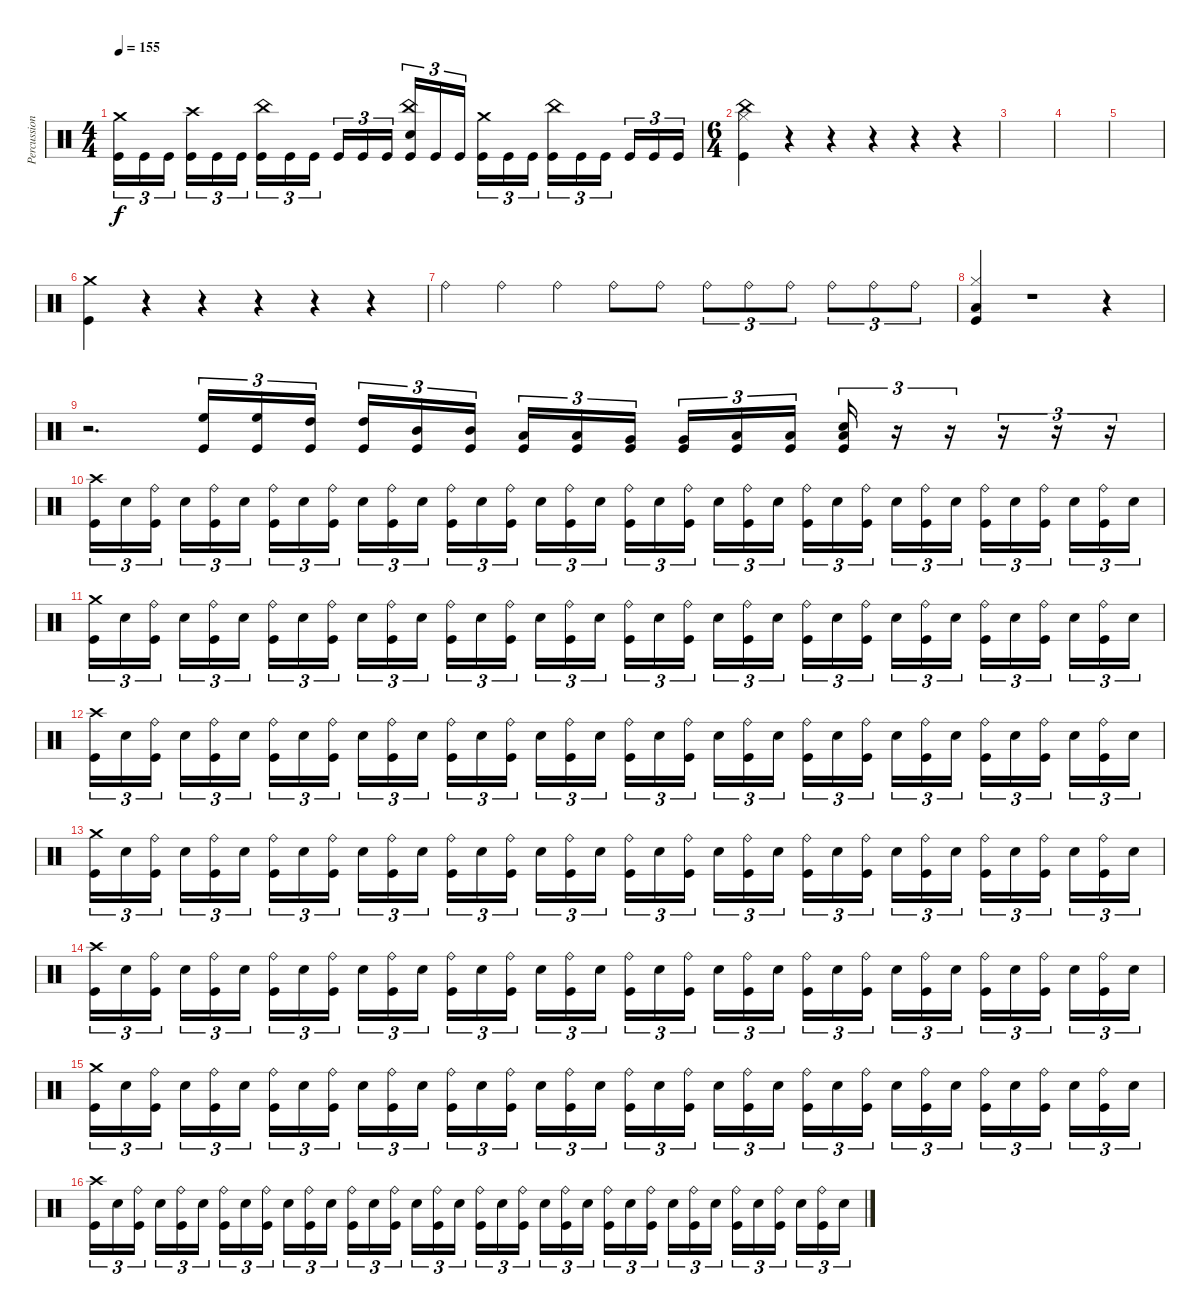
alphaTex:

\track ("Percussion" "Percussion") {instrument percussion}
\staff {score}
\articulation defaults
\ts (4 4)
\tempo 155
\clef neutral
\ks c
("Crash medium (hit)" "Kick (hit)").16{tu (3 2) dy f} "Kick (hit)".16{tu (3 2)} "Kick (hit)".16{tu (3 2) beam splitsecondary} ("Crash high (hit)" "Kick (hit)").16{tu (3 2)} "Kick (hit)".16{tu (3 2)} "Kick (hit)".16{tu (3 2)} ("China (hit)" "Kick (hit)").16{tu (3 2)} "Kick (hit)".16{tu (3 2)} "Kick (hit)".16{tu (3 2) beam splitsecondary} "Kick (hit)".16{tu (3 2)} "Kick (hit)".16{tu (3 2)} "Kick (hit)".16{tu (3 2)} ("China (hit)" "Snare (hit) 2" "Kick (hit)").16{tu (3 2)} "Kick (hit)".16{tu (3 2)} "Kick (hit)".16{tu (3 2) beam splitsecondary} ("Crash medium (hit)" "Kick (hit)").16{tu (3 2)} "Kick (hit)".16{tu (3 2)} "Kick (hit)".16{tu (3 2)} ("China (hit)" "Kick (hit)").16{tu (3 2)} "Kick (hit)".16{tu (3 2)} "Kick (hit)".16{tu (3 2) beam splitsecondary} "Kick (hit)".16{tu (3 2)} "Kick (hit)".16{tu (3 2)} "Kick (hit)".16{tu (3 2)} |
\ts (6 4)
("Hi-Hat (closed)" "China (hit)" "Kick (hit)").4 r.4 r.4 r.4 r.4 r.4 |
|
|
|
("Crash medium (hit)" "Kick (hit)").4 r.4 r.4 r.4 r.4 r.4 |
"Ride (bell)".4 "Ride (bell)".4 "Ride (bell)".4 "Ride (bell)".8 "Ride (bell)".8 "Ride (bell)".8{tu (3 2)} "Ride (bell)".8{tu (3 2)} "Ride (bell)".8{tu (3 2)} "Ride (bell)".8{tu (3 2)} "Ride (bell)".8{tu (3 2)} "Ride (bell)".8{tu (3 2)} |
("Hi-Hat (closed)" "Low Floor Tom (hit)" "Kick (hit)").4 r.1 r.4 |
r.2{d} ("High Floor Tom (hit)" "Kick (hit)").16{tu (3 2)} ("High Floor Tom (hit)" "Kick (hit)").16{tu (3 2)} ("High Tom (hit)" "Kick (hit)").16{tu (3 2) beam splitsecondary} ("High Tom (hit)" "Kick (hit)").16{tu (3 2)} ("Mid Tom (hit)" "Kick (hit)").16{tu (3 2)} ("Mid Tom (hit)" "Kick (hit)").16{tu (3 2) beam splitsecondary} ("Low Tom (hit)" "Kick (hit)").16{tu (3 2)} ("Low Tom (hit)" "Kick (hit)").16{tu (3 2)} ("Very Low Tom (hit)" "Kick (hit)").16{tu (3 2) beam splitsecondary} ("Very Low Tom (hit)" "Kick (hit)").16{tu (3 2)} ("Low Floor Tom (hit)" "Kick (hit)").16{tu (3 2)} ("Low Floor Tom (hit)" "Kick (hit)").16{tu (3 2) beam splitsecondary} ("Low Floor Tom (hit)" "Snare (hit) 2" "Kick (hit)").16{tu (3 2)} r.16{tu (3 2)} r.16{tu (3 2)} r.16{tu (3 2)} r.16{tu (3 2)} r.16{tu (3 2)} |
("Crash high (hit)" "Kick (hit)").16{tu (3 2)} "Snare (hit) 2".16{tu (3 2)} ("Ride (bell)" "Kick (hit)").16{tu (3 2) beam splitsecondary} "Snare (hit) 2".16{tu (3 2)} ("Ride (bell)" "Kick (hit)").16{tu (3 2)} "Snare (hit) 2".16{tu (3 2) beam splitsecondary} ("Ride (bell)" "Kick (hit)").16{tu (3 2)} "Snare (hit) 2".16{tu (3 2)} ("Ride (bell)" "Kick (hit)").16{tu (3 2) beam splitsecondary} "Snare (hit) 2".16{tu (3 2)} ("Ride (bell)" "Kick (hit)").16{tu (3 2)} "Snare (hit) 2".16{tu (3 2) beam splitsecondary} ("Ride (bell)" "Kick (hit)").16{tu (3 2)} "Snare (hit) 2".16{tu (3 2)} ("Ride (bell)" "Kick (hit)").16{tu (3 2) beam splitsecondary} "Snare (hit) 2".16{tu (3 2)} ("Ride (bell)" "Kick (hit)").16{tu (3 2)} "Snare (hit) 2".16{tu (3 2)} ("Ride (bell)" "Kick (hit)").16{tu (3 2)} "Snare (hit) 2".16{tu (3 2)} ("Ride (bell)" "Kick (hit)").16{tu (3 2) beam splitsecondary} "Snare (hit) 2".16{tu (3 2)} ("Ride (bell)" "Kick (hit)").16{tu (3 2)} "Snare (hit) 2".16{tu (3 2) beam splitsecondary} ("Ride (bell)" "Kick (hit)").16{tu (3 2)} "Snare (hit) 2".16{tu (3 2)} ("Ride (bell)" "Kick (hit)").16{tu (3 2) beam splitsecondary} "Snare (hit) 2".16{tu (3 2)} ("Ride (bell)" "Kick (hit)").16{tu (3 2)} "Snare (hit) 2".16{tu (3 2) beam splitsecondary} ("Ride (bell)" "Kick (hit)").16{tu (3 2)} "Snare (hit) 2".16{tu (3 2)} ("Ride (bell)" "Kick (hit)").16{tu (3 2) beam splitsecondary} "Snare (hit) 2".16{tu (3 2)} ("Ride (bell)" "Kick (hit)").16{tu (3 2)} "Snare (hit) 2".16{tu (3 2)} |
("Crash medium (hit)" "Kick (hit)").16{tu (3 2)} "Snare (hit) 2".16{tu (3 2)} ("Ride (bell)" "Kick (hit)").16{tu (3 2) beam splitsecondary} "Snare (hit) 2".16{tu (3 2)} ("Ride (bell)" "Kick (hit)").16{tu (3 2)} "Snare (hit) 2".16{tu (3 2) beam splitsecondary} ("Ride (bell)" "Kick (hit)").16{tu (3 2)} "Snare (hit) 2".16{tu (3 2)} ("Ride (bell)" "Kick (hit)").16{tu (3 2) beam splitsecondary} "Snare (hit) 2".16{tu (3 2)} ("Ride (bell)" "Kick (hit)").16{tu (3 2)} "Snare (hit) 2".16{tu (3 2) beam splitsecondary} ("Ride (bell)" "Kick (hit)").16{tu (3 2)} "Snare (hit) 2".16{tu (3 2)} ("Ride (bell)" "Kick (hit)").16{tu (3 2) beam splitsecondary} "Snare (hit) 2".16{tu (3 2)} ("Ride (bell)" "Kick (hit)").16{tu (3 2)} "Snare (hit) 2".16{tu (3 2)} ("Ride (bell)" "Kick (hit)").16{tu (3 2)} "Snare (hit) 2".16{tu (3 2)} ("Ride (bell)" "Kick (hit)").16{tu (3 2) beam splitsecondary} "Snare (hit) 2".16{tu (3 2)} ("Ride (bell)" "Kick (hit)").16{tu (3 2)} "Snare (hit) 2".16{tu (3 2) beam splitsecondary} ("Ride (bell)" "Kick (hit)").16{tu (3 2)} "Snare (hit) 2".16{tu (3 2)} ("Ride (bell)" "Kick (hit)").16{tu (3 2) beam splitsecondary} "Snare (hit) 2".16{tu (3 2)} ("Ride (bell)" "Kick (hit)").16{tu (3 2)} "Snare (hit) 2".16{tu (3 2) beam splitsecondary} ("Ride (bell)" "Kick (hit)").16{tu (3 2)} "Snare (hit) 2".16{tu (3 2)} ("Ride (bell)" "Kick (hit)").16{tu (3 2) beam splitsecondary} "Snare (hit) 2".16{tu (3 2)} ("Ride (bell)" "Kick (hit)").16{tu (3 2)} "Snare (hit) 2".16{tu (3 2)} |
("Crash high (hit)" "Kick (hit)").16{tu (3 2)} "Snare (hit) 2".16{tu (3 2)} ("Ride (bell)" "Kick (hit)").16{tu (3 2) beam splitsecondary} "Snare (hit) 2".16{tu (3 2)} ("Ride (bell)" "Kick (hit)").16{tu (3 2)} "Snare (hit) 2".16{tu (3 2) beam splitsecondary} ("Ride (bell)" "Kick (hit)").16{tu (3 2)} "Snare (hit) 2".16{tu (3 2)} ("Ride (bell)" "Kick (hit)").16{tu (3 2) beam splitsecondary} "Snare (hit) 2".16{tu (3 2)} ("Ride (bell)" "Kick (hit)").16{tu (3 2)} "Snare (hit) 2".16{tu (3 2) beam splitsecondary} ("Ride (bell)" "Kick (hit)").16{tu (3 2)} "Snare (hit) 2".16{tu (3 2)} ("Ride (bell)" "Kick (hit)").16{tu (3 2) beam splitsecondary} "Snare (hit) 2".16{tu (3 2)} ("Ride (bell)" "Kick (hit)").16{tu (3 2)} "Snare (hit) 2".16{tu (3 2)} ("Ride (bell)" "Kick (hit)").16{tu (3 2)} "Snare (hit) 2".16{tu (3 2)} ("Ride (bell)" "Kick (hit)").16{tu (3 2) beam splitsecondary} "Snare (hit) 2".16{tu (3 2)} ("Ride (bell)" "Kick (hit)").16{tu (3 2)} "Snare (hit) 2".16{tu (3 2) beam splitsecondary} ("Ride (bell)" "Kick (hit)").16{tu (3 2)} "Snare (hit) 2".16{tu (3 2)} ("Ride (bell)" "Kick (hit)").16{tu (3 2) beam splitsecondary} "Snare (hit) 2".16{tu (3 2)} ("Ride (bell)" "Kick (hit)").16{tu (3 2)} "Snare (hit) 2".16{tu (3 2) beam splitsecondary} ("Ride (bell)" "Kick (hit)").16{tu (3 2)} "Snare (hit) 2".16{tu (3 2)} ("Ride (bell)" "Kick (hit)").16{tu (3 2) beam splitsecondary} "Snare (hit) 2".16{tu (3 2)} ("Ride (bell)" "Kick (hit)").16{tu (3 2)} "Snare (hit) 2".16{tu (3 2)} |
("Crash medium (hit)" "Kick (hit)").16{tu (3 2)} "Snare (hit) 2".16{tu (3 2)} ("Ride (bell)" "Kick (hit)").16{tu (3 2) beam splitsecondary} "Snare (hit) 2".16{tu (3 2)} ("Ride (bell)" "Kick (hit)").16{tu (3 2)} "Snare (hit) 2".16{tu (3 2) beam splitsecondary} ("Ride (bell)" "Kick (hit)").16{tu (3 2)} "Snare (hit) 2".16{tu (3 2)} ("Ride (bell)" "Kick (hit)").16{tu (3 2) beam splitsecondary} "Snare (hit) 2".16{tu (3 2)} ("Ride (bell)" "Kick (hit)").16{tu (3 2)} "Snare (hit) 2".16{tu (3 2) beam splitsecondary} ("Ride (bell)" "Kick (hit)").16{tu (3 2)} "Snare (hit) 2".16{tu (3 2)} ("Ride (bell)" "Kick (hit)").16{tu (3 2) beam splitsecondary} "Snare (hit) 2".16{tu (3 2)} ("Ride (bell)" "Kick (hit)").16{tu (3 2)} "Snare (hit) 2".16{tu (3 2)} ("Ride (bell)" "Kick (hit)").16{tu (3 2)} "Snare (hit) 2".16{tu (3 2)} ("Ride (bell)" "Kick (hit)").16{tu (3 2) beam splitsecondary} "Snare (hit) 2".16{tu (3 2)} ("Ride (bell)" "Kick (hit)").16{tu (3 2)} "Snare (hit) 2".16{tu (3 2) beam splitsecondary} ("Ride (bell)" "Kick (hit)").16{tu (3 2)} "Snare (hit) 2".16{tu (3 2)} ("Ride (bell)" "Kick (hit)").16{tu (3 2) beam splitsecondary} "Snare (hit) 2".16{tu (3 2)} ("Ride (bell)" "Kick (hit)").16{tu (3 2)} "Snare (hit) 2".16{tu (3 2) beam splitsecondary} ("Ride (bell)" "Kick (hit)").16{tu (3 2)} "Snare (hit) 2".16{tu (3 2)} ("Ride (bell)" "Kick (hit)").16{tu (3 2) beam splitsecondary} "Snare (hit) 2".16{tu (3 2)} ("Ride (bell)" "Kick (hit)").16{tu (3 2)} "Snare (hit) 2".16{tu (3 2)} |
("Crash high (hit)" "Kick (hit)").16{tu (3 2)} "Snare (hit) 2".16{tu (3 2)} ("Ride (bell)" "Kick (hit)").16{tu (3 2) beam splitsecondary} "Snare (hit) 2".16{tu (3 2)} ("Ride (bell)" "Kick (hit)").16{tu (3 2)} "Snare (hit) 2".16{tu (3 2) beam splitsecondary} ("Ride (bell)" "Kick (hit)").16{tu (3 2)} "Snare (hit) 2".16{tu (3 2)} ("Ride (bell)" "Kick (hit)").16{tu (3 2) beam splitsecondary} "Snare (hit) 2".16{tu (3 2)} ("Ride (bell)" "Kick (hit)").16{tu (3 2)} "Snare (hit) 2".16{tu (3 2) beam splitsecondary} ("Ride (bell)" "Kick (hit)").16{tu (3 2)} "Snare (hit) 2".16{tu (3 2)} ("Ride (bell)" "Kick (hit)").16{tu (3 2) beam splitsecondary} "Snare (hit) 2".16{tu (3 2)} ("Ride (bell)" "Kick (hit)").16{tu (3 2)} "Snare (hit) 2".16{tu (3 2)} ("Ride (bell)" "Kick (hit)").16{tu (3 2)} "Snare (hit) 2".16{tu (3 2)} ("Ride (bell)" "Kick (hit)").16{tu (3 2) beam splitsecondary} "Snare (hit) 2".16{tu (3 2)} ("Ride (bell)" "Kick (hit)").16{tu (3 2)} "Snare (hit) 2".16{tu (3 2) beam splitsecondary} ("Ride (bell)" "Kick (hit)").16{tu (3 2)} "Snare (hit) 2".16{tu (3 2)} ("Ride (bell)" "Kick (hit)").16{tu (3 2) beam splitsecondary} "Snare (hit) 2".16{tu (3 2)} ("Ride (bell)" "Kick (hit)").16{tu (3 2)} "Snare (hit) 2".16{tu (3 2) beam splitsecondary} ("Ride (bell)" "Kick (hit)").16{tu (3 2)} "Snare (hit) 2".16{tu (3 2)} ("Ride (bell)" "Kick (hit)").16{tu (3 2) beam splitsecondary} "Snare (hit) 2".16{tu (3 2)} ("Ride (bell)" "Kick (hit)").16{tu (3 2)} "Snare (hit) 2".16{tu (3 2)} |
("Crash medium (hit)" "Kick (hit)").16{tu (3 2)} "Snare (hit) 2".16{tu (3 2)} ("Ride (bell)" "Kick (hit)").16{tu (3 2) beam splitsecondary} "Snare (hit) 2".16{tu (3 2)} ("Ride (bell)" "Kick (hit)").16{tu (3 2)} "Snare (hit) 2".16{tu (3 2) beam splitsecondary} ("Ride (bell)" "Kick (hit)").16{tu (3 2)} "Snare (hit) 2".16{tu (3 2)} ("Ride (bell)" "Kick (hit)").16{tu (3 2) beam splitsecondary} "Snare (hit) 2".16{tu (3 2)} ("Ride (bell)" "Kick (hit)").16{tu (3 2)} "Snare (hit) 2".16{tu (3 2) beam splitsecondary} ("Ride (bell)" "Kick (hit)").16{tu (3 2)} "Snare (hit) 2".16{tu (3 2)} ("Ride (bell)" "Kick (hit)").16{tu (3 2) beam splitsecondary} "Snare (hit) 2".16{tu (3 2)} ("Ride (bell)" "Kick (hit)").16{tu (3 2)} "Snare (hit) 2".16{tu (3 2)} ("Ride (bell)" "Kick (hit)").16{tu (3 2)} "Snare (hit) 2".16{tu (3 2)} ("Ride (bell)" "Kick (hit)").16{tu (3 2) beam splitsecondary} "Snare (hit) 2".16{tu (3 2)} ("Ride (bell)" "Kick (hit)").16{tu (3 2)} "Snare (hit) 2".16{tu (3 2) beam splitsecondary} ("Ride (bell)" "Kick (hit)").16{tu (3 2)} "Snare (hit) 2".16{tu (3 2)} ("Ride (bell)" "Kick (hit)").16{tu (3 2) beam splitsecondary} "Snare (hit) 2".16{tu (3 2)} ("Ride (bell)" "Kick (hit)").16{tu (3 2)} "Snare (hit) 2".16{tu (3 2) beam splitsecondary} ("Ride (bell)" "Kick (hit)").16{tu (3 2)} "Snare (hit) 2".16{tu (3 2)} ("Ride (bell)" "Kick (hit)").16{tu (3 2) beam splitsecondary} "Snare (hit) 2".16{tu (3 2)} ("Ride (bell)" "Kick (hit)").16{tu (3 2)} "Snare (hit) 2".16{tu (3 2)} |
("Crash high (hit)" "Kick (hit)").16{tu (3 2)} "Snare (hit) 2".16{tu (3 2)} ("Ride (bell)" "Kick (hit)").16{tu (3 2) beam splitsecondary} "Snare (hit) 2".16{tu (3 2)} ("Ride (bell)" "Kick (hit)").16{tu (3 2)} "Snare (hit) 2".16{tu (3 2) beam splitsecondary} ("Ride (bell)" "Kick (hit)").16{tu (3 2)} "Snare (hit) 2".16{tu (3 2)} ("Ride (bell)" "Kick (hit)").16{tu (3 2) beam splitsecondary} "Snare (hit) 2".16{tu (3 2)} ("Ride (bell)" "Kick (hit)").16{tu (3 2)} "Snare (hit) 2".16{tu (3 2) beam splitsecondary} ("Ride (bell)" "Kick (hit)").16{tu (3 2)} "Snare (hit) 2".16{tu (3 2)} ("Ride (bell)" "Kick (hit)").16{tu (3 2) beam splitsecondary} "Snare (hit) 2".16{tu (3 2)} ("Ride (bell)" "Kick (hit)").16{tu (3 2)} "Snare (hit) 2".16{tu (3 2)} ("Ride (bell)" "Kick (hit)").16{tu (3 2)} "Snare (hit) 2".16{tu (3 2)} ("Ride (bell)" "Kick (hit)").16{tu (3 2) beam splitsecondary} "Snare (hit) 2".16{tu (3 2)} ("Ride (bell)" "Kick (hit)").16{tu (3 2)} "Snare (hit) 2".16{tu (3 2) beam splitsecondary} ("Ride (bell)" "Kick (hit)").16{tu (3 2)} "Snare (hit) 2".16{tu (3 2)} ("Ride (bell)" "Kick (hit)").16{tu (3 2) beam splitsecondary} "Snare (hit) 2".16{tu (3 2)} ("Ride (bell)" "Kick (hit)").16{tu (3 2)} "Snare (hit) 2".16{tu (3 2) beam splitsecondary} ("Ride (bell)" "Kick (hit)").16{tu (3 2)} "Snare (hit) 2".16{tu (3 2)} ("Ride (bell)" "Kick (hit)").16{tu (3 2) beam splitsecondary} "Snare (hit) 2".16{tu (3 2)} ("Ride (bell)" "Kick (hit)").16{tu (3 2)} "Snare (hit) 2".16{tu (3 2)}
